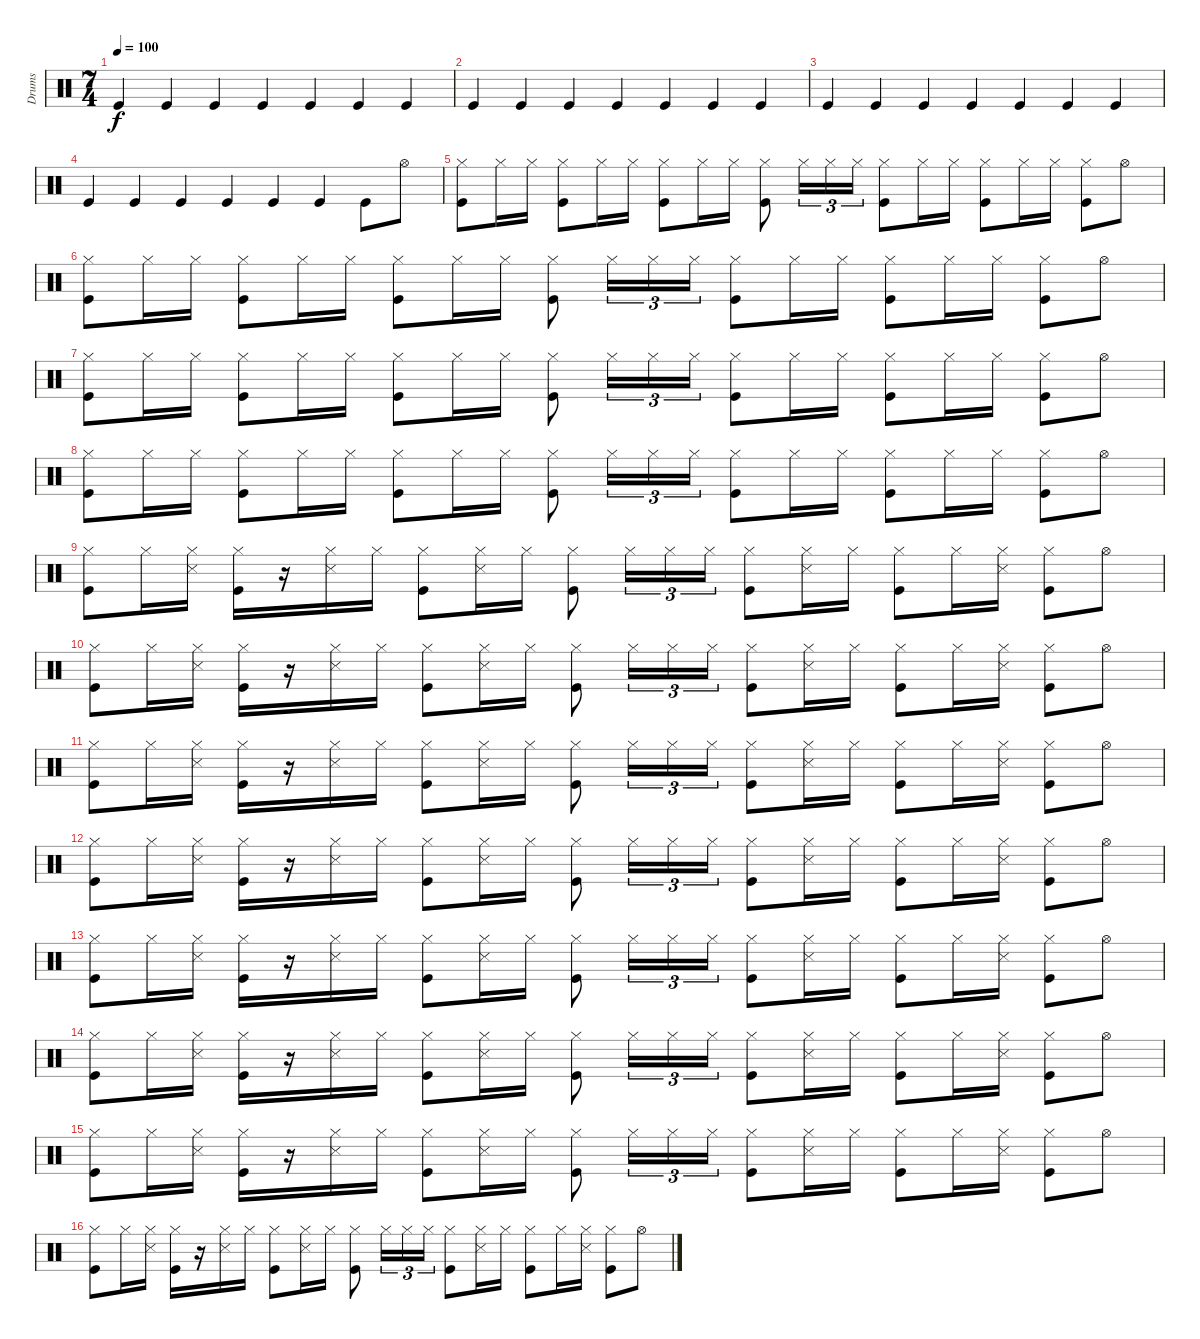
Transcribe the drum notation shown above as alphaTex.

\track ("Drums" "Drums") {instrument percussion}
\staff {score}
\articulation defaults
\ts (7 4)
\tempo 100
\clef neutral
\ks c "Kick (hit)".4{dy f} "Kick (hit)".4 "Kick (hit)".4 "Kick (hit)".4 "Kick (hit)".4 "Kick (hit)".4 "Kick (hit)".4
|
"Kick (hit)".4 "Kick (hit)".4 "Kick (hit)".4 "Kick (hit)".4 "Kick (hit)".4 "Kick (hit)".4 "Kick (hit)".4 |
"Kick (hit)".4 "Kick (hit)".4 "Kick (hit)".4 "Kick (hit)".4 "Kick (hit)".4 "Kick (hit)".4 "Kick (hit)".4 |
"Kick (hit)".4 "Kick (hit)".4 "Kick (hit)".4 "Kick (hit)".4 "Kick (hit)".4 "Kick (hit)".4 "Kick (hit)".8 "Hi-Hat (open)".8 |
("Kick (hit)" "Hi-Hat (closed)").8 "Hi-Hat (closed)".16 "Hi-Hat (closed)".16 ("Kick (hit)" "Hi-Hat (closed)").8 "Hi-Hat (closed)".16 "Hi-Hat (closed)".16 ("Kick (hit)" "Hi-Hat (closed)").8 "Hi-Hat (closed)".16 "Hi-Hat (closed)".16 ("Kick (hit)" "Hi-Hat (closed)").8 "Hi-Hat (closed)".16{tu (3 2)} "Hi-Hat (closed)".16{tu (3 2)} "Hi-Hat (closed)".16{tu (3 2)} ("Kick (hit)" "Hi-Hat (closed)").8 "Hi-Hat (closed)".16 "Hi-Hat (closed)".16 ("Kick (hit)" "Hi-Hat (closed)").8 "Hi-Hat (closed)".16 "Hi-Hat (closed)".16 ("Kick (hit)" "Hi-Hat (closed)").8 "Hi-Hat (open)".8 |
("Kick (hit)" "Hi-Hat (closed)").8 "Hi-Hat (closed)".16 "Hi-Hat (closed)".16 ("Kick (hit)" "Hi-Hat (closed)").8 "Hi-Hat (closed)".16 "Hi-Hat (closed)".16 ("Kick (hit)" "Hi-Hat (closed)").8 "Hi-Hat (closed)".16 "Hi-Hat (closed)".16 ("Kick (hit)" "Hi-Hat (closed)").8 "Hi-Hat (closed)".16{tu (3 2)} "Hi-Hat (closed)".16{tu (3 2)} "Hi-Hat (closed)".16{tu (3 2)} ("Kick (hit)" "Hi-Hat (closed)").8 "Hi-Hat (closed)".16 "Hi-Hat (closed)".16 ("Kick (hit)" "Hi-Hat (closed)").8 "Hi-Hat (closed)".16 "Hi-Hat (closed)".16 ("Kick (hit)" "Hi-Hat (closed)").8 "Hi-Hat (open)".8 |
("Kick (hit)" "Hi-Hat (closed)").8 "Hi-Hat (closed)".16 "Hi-Hat (closed)".16 ("Kick (hit)" "Hi-Hat (closed)").8 "Hi-Hat (closed)".16 "Hi-Hat (closed)".16 ("Kick (hit)" "Hi-Hat (closed)").8 "Hi-Hat (closed)".16 "Hi-Hat (closed)".16 ("Kick (hit)" "Hi-Hat (closed)").8 "Hi-Hat (closed)".16{tu (3 2)} "Hi-Hat (closed)".16{tu (3 2)} "Hi-Hat (closed)".16{tu (3 2)} ("Kick (hit)" "Hi-Hat (closed)").8 "Hi-Hat (closed)".16 "Hi-Hat (closed)".16 ("Kick (hit)" "Hi-Hat (closed)").8 "Hi-Hat (closed)".16 "Hi-Hat (closed)".16 ("Kick (hit)" "Hi-Hat (closed)").8 "Hi-Hat (open)".8 |
("Kick (hit)" "Hi-Hat (closed)").8 "Hi-Hat (closed)".16 "Hi-Hat (closed)".16 ("Kick (hit)" "Hi-Hat (closed)").8 "Hi-Hat (closed)".16 "Hi-Hat (closed)".16 ("Kick (hit)" "Hi-Hat (closed)").8 "Hi-Hat (closed)".16 "Hi-Hat (closed)".16 ("Kick (hit)" "Hi-Hat (closed)").8 "Hi-Hat (closed)".16{tu (3 2)} "Hi-Hat (closed)".16{tu (3 2)} "Hi-Hat (closed)".16{tu (3 2)} ("Kick (hit)" "Hi-Hat (closed)").8 "Hi-Hat (closed)".16 "Hi-Hat (closed)".16 ("Kick (hit)" "Hi-Hat (closed)").8 "Hi-Hat (closed)".16 "Hi-Hat (closed)".16 ("Kick (hit)" "Hi-Hat (closed)").8 "Hi-Hat (open)".8 |
("Kick (hit)" "Hi-Hat (closed)").8 "Hi-Hat (closed)".16 ("Snare (side stick) 3" "Hi-Hat (closed)").16 ("Kick (hit)" "Hi-Hat (closed)").16 r.16 ("Snare (side stick) 3" "Hi-Hat (closed)").16 "Hi-Hat (closed)".16 ("Kick (hit)" "Hi-Hat (closed)").8 ("Snare (side stick) 3" "Hi-Hat (closed)").16 "Hi-Hat (closed)".16 ("Kick (hit)" "Hi-Hat (closed)").8 "Hi-Hat (closed)".16{tu (3 2)} "Hi-Hat (closed)".16{tu (3 2)} "Hi-Hat (closed)".16{tu (3 2)} ("Kick (hit)" "Hi-Hat (closed)").8 ("Snare (side stick) 3" "Hi-Hat (closed)").16 "Hi-Hat (closed)".16 ("Kick (hit)" "Hi-Hat (closed)").8 "Hi-Hat (closed)".16 ("Snare (side stick) 3" "Hi-Hat (closed)").16 ("Kick (hit)" "Hi-Hat (closed)").8 "Hi-Hat (open)".8 |
("Kick (hit)" "Hi-Hat (closed)").8 "Hi-Hat (closed)".16 ("Snare (side stick) 3" "Hi-Hat (closed)").16 ("Kick (hit)" "Hi-Hat (closed)").16 r.16 ("Snare (side stick) 3" "Hi-Hat (closed)").16 "Hi-Hat (closed)".16 ("Kick (hit)" "Hi-Hat (closed)").8 ("Snare (side stick) 3" "Hi-Hat (closed)").16 "Hi-Hat (closed)".16 ("Kick (hit)" "Hi-Hat (closed)").8 "Hi-Hat (closed)".16{tu (3 2)} "Hi-Hat (closed)".16{tu (3 2)} "Hi-Hat (closed)".16{tu (3 2)} ("Kick (hit)" "Hi-Hat (closed)").8 ("Snare (side stick) 3" "Hi-Hat (closed)").16 "Hi-Hat (closed)".16 ("Kick (hit)" "Hi-Hat (closed)").8 "Hi-Hat (closed)".16 ("Snare (side stick) 3" "Hi-Hat (closed)").16 ("Kick (hit)" "Hi-Hat (closed)").8 "Hi-Hat (open)".8 |
("Kick (hit)" "Hi-Hat (closed)").8 "Hi-Hat (closed)".16 ("Snare (side stick) 3" "Hi-Hat (closed)").16 ("Kick (hit)" "Hi-Hat (closed)").16 r.16 ("Snare (side stick) 3" "Hi-Hat (closed)").16 "Hi-Hat (closed)".16 ("Kick (hit)" "Hi-Hat (closed)").8 ("Snare (side stick) 3" "Hi-Hat (closed)").16 "Hi-Hat (closed)".16 ("Kick (hit)" "Hi-Hat (closed)").8 "Hi-Hat (closed)".16{tu (3 2)} "Hi-Hat (closed)".16{tu (3 2)} "Hi-Hat (closed)".16{tu (3 2)} ("Kick (hit)" "Hi-Hat (closed)").8 ("Snare (side stick) 3" "Hi-Hat (closed)").16 "Hi-Hat (closed)".16 ("Kick (hit)" "Hi-Hat (closed)").8 "Hi-Hat (closed)".16 ("Snare (side stick) 3" "Hi-Hat (closed)").16 ("Kick (hit)" "Hi-Hat (closed)").8 "Hi-Hat (open)".8 |
("Kick (hit)" "Hi-Hat (closed)").8 "Hi-Hat (closed)".16 ("Snare (side stick) 3" "Hi-Hat (closed)").16 ("Kick (hit)" "Hi-Hat (closed)").16 r.16 ("Snare (side stick) 3" "Hi-Hat (closed)").16 "Hi-Hat (closed)".16 ("Kick (hit)" "Hi-Hat (closed)").8 ("Snare (side stick) 3" "Hi-Hat (closed)").16 "Hi-Hat (closed)".16 ("Kick (hit)" "Hi-Hat (closed)").8 "Hi-Hat (closed)".16{tu (3 2)} "Hi-Hat (closed)".16{tu (3 2)} "Hi-Hat (closed)".16{tu (3 2)} ("Kick (hit)" "Hi-Hat (closed)").8 ("Snare (side stick) 3" "Hi-Hat (closed)").16 "Hi-Hat (closed)".16 ("Kick (hit)" "Hi-Hat (closed)").8 "Hi-Hat (closed)".16 ("Snare (side stick) 3" "Hi-Hat (closed)").16 ("Kick (hit)" "Hi-Hat (closed)").8 "Hi-Hat (open)".8 |
("Kick (hit)" "Hi-Hat (closed)").8 "Hi-Hat (closed)".16 ("Snare (side stick) 3" "Hi-Hat (closed)").16 ("Kick (hit)" "Hi-Hat (closed)").16 r.16 ("Snare (side stick) 3" "Hi-Hat (closed)").16 "Hi-Hat (closed)".16 ("Kick (hit)" "Hi-Hat (closed)").8 ("Snare (side stick) 3" "Hi-Hat (closed)").16 "Hi-Hat (closed)".16 ("Kick (hit)" "Hi-Hat (closed)").8 "Hi-Hat (closed)".16{tu (3 2)} "Hi-Hat (closed)".16{tu (3 2)} "Hi-Hat (closed)".16{tu (3 2)} ("Kick (hit)" "Hi-Hat (closed)").8 ("Snare (side stick) 3" "Hi-Hat (closed)").16 "Hi-Hat (closed)".16 ("Kick (hit)" "Hi-Hat (closed)").8 "Hi-Hat (closed)".16 ("Snare (side stick) 3" "Hi-Hat (closed)").16 ("Kick (hit)" "Hi-Hat (closed)").8 "Hi-Hat (open)".8 |
("Kick (hit)" "Hi-Hat (closed)").8 "Hi-Hat (closed)".16 ("Snare (side stick) 3" "Hi-Hat (closed)").16 ("Kick (hit)" "Hi-Hat (closed)").16 r.16 ("Snare (side stick) 3" "Hi-Hat (closed)").16 "Hi-Hat (closed)".16 ("Kick (hit)" "Hi-Hat (closed)").8 ("Snare (side stick) 3" "Hi-Hat (closed)").16 "Hi-Hat (closed)".16 ("Kick (hit)" "Hi-Hat (closed)").8 "Hi-Hat (closed)".16{tu (3 2)} "Hi-Hat (closed)".16{tu (3 2)} "Hi-Hat (closed)".16{tu (3 2)} ("Kick (hit)" "Hi-Hat (closed)").8 ("Snare (side stick) 3" "Hi-Hat (closed)").16 "Hi-Hat (closed)".16 ("Kick (hit)" "Hi-Hat (closed)").8 "Hi-Hat (closed)".16 ("Snare (side stick) 3" "Hi-Hat (closed)").16 ("Kick (hit)" "Hi-Hat (closed)").8 "Hi-Hat (open)".8 |
("Kick (hit)" "Hi-Hat (closed)").8 "Hi-Hat (closed)".16 ("Snare (side stick) 3" "Hi-Hat (closed)").16 ("Kick (hit)" "Hi-Hat (closed)").16 r.16 ("Snare (side stick) 3" "Hi-Hat (closed)").16 "Hi-Hat (closed)".16 ("Kick (hit)" "Hi-Hat (closed)").8 ("Snare (side stick) 3" "Hi-Hat (closed)").16 "Hi-Hat (closed)".16 ("Kick (hit)" "Hi-Hat (closed)").8 "Hi-Hat (closed)".16{tu (3 2)} "Hi-Hat (closed)".16{tu (3 2)} "Hi-Hat (closed)".16{tu (3 2)} ("Kick (hit)" "Hi-Hat (closed)").8 ("Snare (side stick) 3" "Hi-Hat (closed)").16 "Hi-Hat (closed)".16 ("Kick (hit)" "Hi-Hat (closed)").8 "Hi-Hat (closed)".16 ("Snare (side stick) 3" "Hi-Hat (closed)").16 ("Kick (hit)" "Hi-Hat (closed)").8 "Hi-Hat (open)".8 |
("Kick (hit)" "Hi-Hat (closed)").8 "Hi-Hat (closed)".16 ("Snare (side stick) 3" "Hi-Hat (closed)").16 ("Kick (hit)" "Hi-Hat (closed)").16 r.16 ("Snare (side stick) 3" "Hi-Hat (closed)").16 "Hi-Hat (closed)".16 ("Kick (hit)" "Hi-Hat (closed)").8 ("Snare (side stick) 3" "Hi-Hat (closed)").16 "Hi-Hat (closed)".16 ("Kick (hit)" "Hi-Hat (closed)").8 "Hi-Hat (closed)".16{tu (3 2)} "Hi-Hat (closed)".16{tu (3 2)} "Hi-Hat (closed)".16{tu (3 2)} ("Kick (hit)" "Hi-Hat (closed)").8 ("Snare (side stick) 3" "Hi-Hat (closed)").16 "Hi-Hat (closed)".16 ("Kick (hit)" "Hi-Hat (closed)").8 "Hi-Hat (closed)".16 ("Snare (side stick) 3" "Hi-Hat (closed)").16 ("Kick (hit)" "Hi-Hat (closed)").8 "Hi-Hat (open)".8
